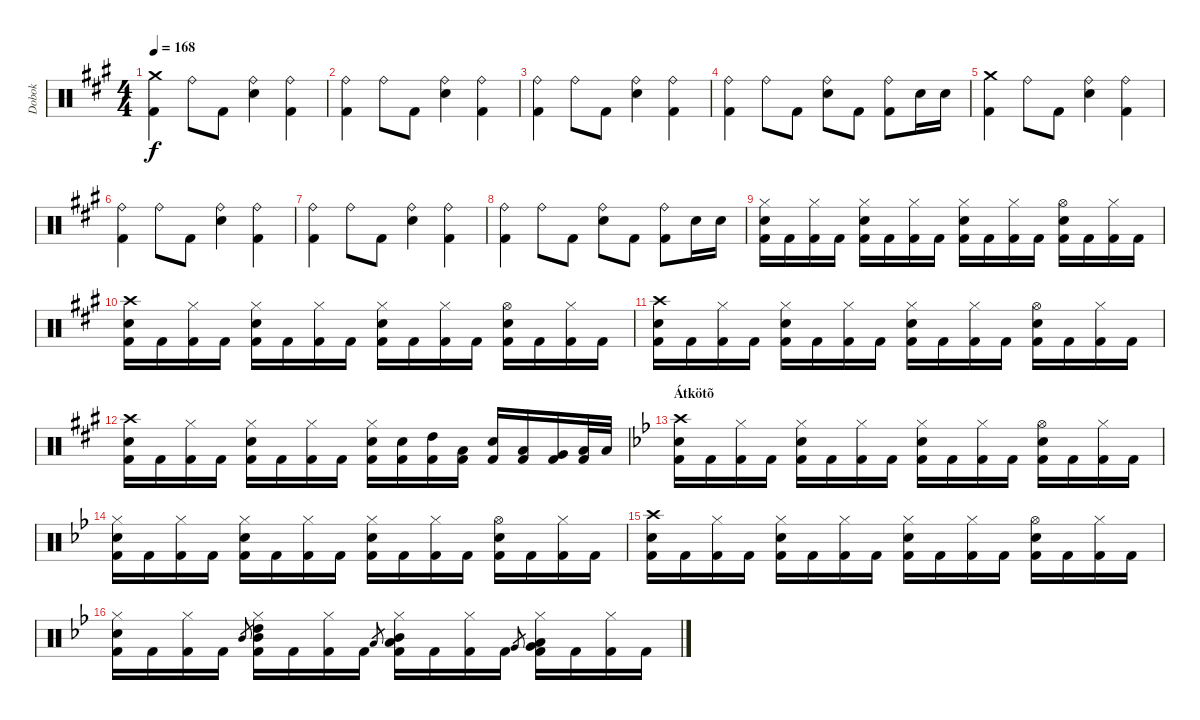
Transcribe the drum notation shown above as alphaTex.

\track ("Dobok" "Dobok") {instrument percussion}
\staff {score}
\articulation defaults
\ts (4 4)
\tempo 168
\clef neutral
\ks f#minor
("Crash medium (hit)" "Kick (hit) 2").4{dy f} "Ride (bell)".8 "Kick (hit) 2".8 ("Ride (bell)" "Snare (hit) 2").4 ("Ride (bell)" "Kick (hit) 2").4 |
("Ride (bell)" "Kick (hit) 2").4 "Ride (bell)".8 "Kick (hit) 2".8 ("Ride (bell)" "Snare (hit) 2").4 ("Ride (bell)" "Kick (hit) 2").4 |
("Ride (bell)" "Kick (hit) 2").4 "Ride (bell)".8 "Kick (hit) 2".8 ("Ride (bell)" "Snare (hit) 2").4 ("Ride (bell)" "Kick (hit) 2").4 |
("Ride (bell)" "Kick (hit) 2").4 "Ride (bell)".8 "Kick (hit) 2".8 ("Ride (bell)" "Snare (hit) 2").8 "Kick (hit) 2".8 ("Ride (bell)" "Kick (hit) 2").8 "Snare (hit) 2".16 "Snare (hit) 2".16 |
("Crash medium (hit)" "Kick (hit) 2").4 "Ride (bell)".8 "Kick (hit) 2".8 ("Ride (bell)" "Snare (hit) 2").4 ("Ride (bell)" "Kick (hit) 2").4 |
("Ride (bell)" "Kick (hit) 2").4 "Ride (bell)".8 "Kick (hit) 2".8 ("Ride (bell)" "Snare (hit) 2").4 ("Ride (bell)" "Kick (hit) 2").4 |
("Ride (bell)" "Kick (hit) 2").4 "Ride (bell)".8 "Kick (hit) 2".8 ("Ride (bell)" "Snare (hit) 2").4 ("Ride (bell)" "Kick (hit) 2").4 |
("Ride (bell)" "Kick (hit) 2").4 "Ride (bell)".8 "Kick (hit) 2".8 ("Ride (bell)" "Snare (hit) 2").8 "Kick (hit) 2".8 ("Ride (bell)" "Kick (hit) 2").8 "Snare (hit) 2".16 "Snare (hit) 2".16 |
("Hi-Hat (closed)" "Snare (hit) 2" "Kick (hit) 2").16 "Kick (hit) 2".16 ("Hi-Hat (closed)" "Kick (hit) 2").16 "Kick (hit) 2".16 ("Hi-Hat (closed)" "Snare (hit) 2" "Kick (hit) 2").16 "Kick (hit) 2".16 ("Hi-Hat (closed)" "Kick (hit) 2").16 "Kick (hit) 2".16 ("Hi-Hat (closed)" "Snare (hit) 2" "Kick (hit) 2").16 "Kick (hit) 2".16 ("Hi-Hat (closed)" "Kick (hit) 2").16 "Kick (hit) 2".16 ("Hi-Hat (open)" "Snare (hit) 2" "Kick (hit) 2").16 "Kick (hit) 2".16 ("Hi-Hat (closed)" "Kick (hit) 2").16 "Kick (hit) 2".16 |
("Crash high (hit)" "Snare (hit) 2" "Kick (hit) 2").16 "Kick (hit) 2".16 ("Hi-Hat (closed)" "Kick (hit) 2").16 "Kick (hit) 2".16 ("Hi-Hat (closed)" "Snare (hit) 2" "Kick (hit) 2").16 "Kick (hit) 2".16 ("Hi-Hat (closed)" "Kick (hit) 2").16 "Kick (hit) 2".16 ("Hi-Hat (closed)" "Snare (hit) 2" "Kick (hit) 2").16 "Kick (hit) 2".16 ("Hi-Hat (closed)" "Kick (hit) 2").16 "Kick (hit) 2".16 ("Hi-Hat (open)" "Snare (hit) 2" "Kick (hit) 2").16 "Kick (hit) 2".16 ("Hi-Hat (closed)" "Kick (hit) 2").16 "Kick (hit) 2".16 |
("Crash high (hit)" "Snare (hit) 2" "Kick (hit) 2").16 "Kick (hit) 2".16 ("Hi-Hat (closed)" "Kick (hit) 2").16 "Kick (hit) 2".16 ("Hi-Hat (closed)" "Snare (hit) 2" "Kick (hit) 2").16 "Kick (hit) 2".16 ("Hi-Hat (closed)" "Kick (hit) 2").16 "Kick (hit) 2".16 ("Hi-Hat (closed)" "Snare (hit) 2" "Kick (hit) 2").16 "Kick (hit) 2".16 ("Hi-Hat (closed)" "Kick (hit) 2").16 "Kick (hit) 2".16 ("Hi-Hat (open)" "Snare (hit) 2" "Kick (hit) 2").16 "Kick (hit) 2".16 ("Hi-Hat (closed)" "Kick (hit) 2").16 "Kick (hit) 2".16 |
("Crash high (hit)" "Snare (hit) 2" "Kick (hit) 2").16 "Kick (hit) 2".16 ("Hi-Hat (closed)" "Kick (hit) 2").16 "Kick (hit) 2".16 ("Hi-Hat (closed)" "Snare (hit) 2" "Kick (hit) 2").16 "Kick (hit) 2".16 ("Hi-Hat (closed)" "Kick (hit) 2").16 "Kick (hit) 2".16 ("Hi-Hat (closed)" "Snare (hit) 2" "Kick (hit) 2").16 ("Snare (hit) 2" "Kick (hit) 2").16 ("High Tom (hit)" "Kick (hit) 2").16 ("Low Tom (hit)" "Kick (hit) 2").16 ("Snare (hit) 2" "Kick (hit) 2").16 ("Low Tom (hit)" "Kick (hit) 2").16 ("Very Low Tom (hit)" "Kick (hit) 2").16 ("Low Floor Tom (hit)" "Kick (hit) 2").32 "Low Floor Tom (hit)".32 |
\section ("" "Átkötõ")
\ks gminor
("Crash high (hit)" "Snare (hit) 2" "Kick (hit) 2").16 "Kick (hit) 2".16 ("Hi-Hat (closed)" "Kick (hit) 2").16 "Kick (hit) 2".16 ("Hi-Hat (closed)" "Snare (hit) 2" "Kick (hit) 2").16 "Kick (hit) 2".16 ("Hi-Hat (closed)" "Kick (hit) 2").16 "Kick (hit) 2".16 ("Hi-Hat (closed)" "Snare (hit) 2" "Kick (hit) 2").16 "Kick (hit) 2".16 ("Hi-Hat (closed)" "Kick (hit) 2").16 "Kick (hit) 2".16 ("Hi-Hat (open)" "Snare (hit) 2" "Kick (hit) 2").16 "Kick (hit) 2".16 ("Hi-Hat (closed)" "Kick (hit) 2").16 "Kick (hit) 2".16 |
("Hi-Hat (closed)" "Snare (hit) 2" "Kick (hit) 2").16 "Kick (hit) 2".16 ("Hi-Hat (closed)" "Kick (hit) 2").16 "Kick (hit) 2".16 ("Hi-Hat (closed)" "Snare (hit) 2" "Kick (hit) 2").16 "Kick (hit) 2".16 ("Hi-Hat (closed)" "Kick (hit) 2").16 "Kick (hit) 2".16 ("Hi-Hat (closed)" "Snare (hit) 2" "Kick (hit) 2").16 "Kick (hit) 2".16 ("Hi-Hat (closed)" "Kick (hit) 2").16 "Kick (hit) 2".16 ("Hi-Hat (open)" "Snare (hit) 2" "Kick (hit) 2").16 "Kick (hit) 2".16 ("Hi-Hat (closed)" "Kick (hit) 2").16 "Kick (hit) 2".16 |
("Crash high (hit)" "Snare (hit) 2" "Kick (hit) 2").16 "Kick (hit) 2".16 ("Hi-Hat (closed)" "Kick (hit) 2").16 "Kick (hit) 2".16 ("Hi-Hat (closed)" "Snare (hit) 2" "Kick (hit) 2").16 "Kick (hit) 2".16 ("Hi-Hat (closed)" "Kick (hit) 2").16 "Kick (hit) 2".16 ("Hi-Hat (closed)" "Snare (hit) 2" "Kick (hit) 2").16 "Kick (hit) 2".16 ("Hi-Hat (closed)" "Kick (hit) 2").16 "Kick (hit) 2".16 ("Hi-Hat (open)" "Snare (hit) 2" "Kick (hit) 2").16 "Kick (hit) 2".16 ("Hi-Hat (closed)" "Kick (hit) 2").16 "Kick (hit) 2".16 |
("Hi-Hat (closed)" "Snare (hit) 2" "Kick (hit) 2").16 "Kick (hit) 2".16 ("Hi-Hat (closed)" "Kick (hit) 2").16 "Kick (hit) 2".16 "Mid Tom (hit)".8{gr} ("Hi-Hat (closed)" "High Tom (hit)" "Mid Tom (hit)" "Kick (hit) 2").16 "Kick (hit) 2".16 ("Hi-Hat (closed)" "Kick (hit) 2").16 "Kick (hit) 2".16 "Low Tom (hit)".8{gr} ("Hi-Hat (closed)" "Mid Tom (hit)" "Low Tom (hit)" "Kick (hit) 2").16 "Kick (hit) 2".16 ("Hi-Hat (closed)" "Kick (hit) 2").16 "Kick (hit) 2".16 "Very Low Tom (hit)".8{gr} ("Hi-Hat (closed)" "Low Tom (hit)" "Very Low Tom (hit)" "Kick (hit) 2").16 "Kick (hit) 2".16 ("Hi-Hat (closed)" "Kick (hit) 2").16 "Kick (hit) 2".16
